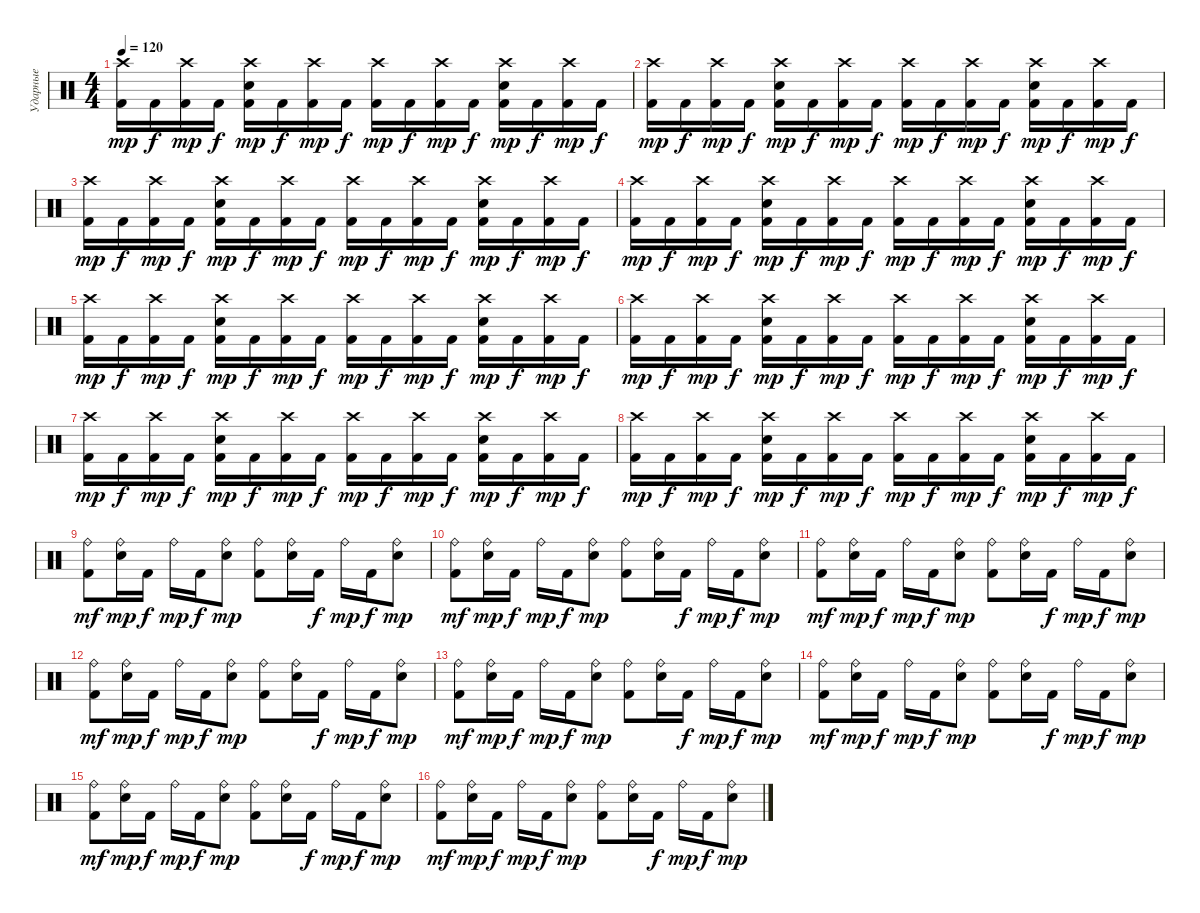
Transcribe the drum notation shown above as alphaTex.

\track ("Ударные" "Ударные") {instrument percussion}
\staff {score}
\articulation defaults
\ts (4 4)
\tempo 120
\clef neutral
\ks c
("Crash high (hit)" "Kick (hit) 2").16{dy mp} "Kick (hit) 2".16{dy f} ("Crash high (hit)" "Kick (hit) 2").16{dy mp} "Kick (hit) 2".16{dy f} ("Crash high (hit)" "Electric Snare (hit)" "Kick (hit) 2").16{dy mp} "Kick (hit) 2".16{dy f} ("Crash high (hit)" "Kick (hit) 2").16{dy mp} "Kick (hit) 2".16{dy f} ("Crash high (hit)" "Kick (hit) 2").16{dy mp} "Kick (hit) 2".16{dy f} ("Crash high (hit)" "Kick (hit) 2").16{dy mp} "Kick (hit) 2".16{dy f} ("Crash high (hit)" "Electric Snare (hit)" "Kick (hit) 2").16{dy mp} "Kick (hit) 2".16{dy f} ("Crash high (hit)" "Kick (hit) 2").16{dy mp} "Kick (hit) 2".16{dy f} |
("Crash high (hit)" "Kick (hit) 2").16{dy mp} "Kick (hit) 2".16{dy f} ("Crash high (hit)" "Kick (hit) 2").16{dy mp} "Kick (hit) 2".16{dy f} ("Crash high (hit)" "Electric Snare (hit)" "Kick (hit) 2").16{dy mp} "Kick (hit) 2".16{dy f} ("Crash high (hit)" "Kick (hit) 2").16{dy mp} "Kick (hit) 2".16{dy f} ("Crash high (hit)" "Kick (hit) 2").16{dy mp} "Kick (hit) 2".16{dy f} ("Crash high (hit)" "Kick (hit) 2").16{dy mp} "Kick (hit) 2".16{dy f} ("Crash high (hit)" "Electric Snare (hit)" "Kick (hit) 2").16{dy mp} "Kick (hit) 2".16{dy f} ("Crash high (hit)" "Kick (hit) 2").16{dy mp} "Kick (hit) 2".16{dy f} |
("Crash high (hit)" "Kick (hit) 2").16{dy mp} "Kick (hit) 2".16{dy f} ("Crash high (hit)" "Kick (hit) 2").16{dy mp} "Kick (hit) 2".16{dy f} ("Crash high (hit)" "Electric Snare (hit)" "Kick (hit) 2").16{dy mp} "Kick (hit) 2".16{dy f} ("Crash high (hit)" "Kick (hit) 2").16{dy mp} "Kick (hit) 2".16{dy f} ("Crash high (hit)" "Kick (hit) 2").16{dy mp} "Kick (hit) 2".16{dy f} ("Crash high (hit)" "Kick (hit) 2").16{dy mp} "Kick (hit) 2".16{dy f} ("Crash high (hit)" "Electric Snare (hit)" "Kick (hit) 2").16{dy mp} "Kick (hit) 2".16{dy f} ("Crash high (hit)" "Kick (hit) 2").16{dy mp} "Kick (hit) 2".16{dy f} |
("Crash high (hit)" "Kick (hit) 2").16{dy mp} "Kick (hit) 2".16{dy f} ("Crash high (hit)" "Kick (hit) 2").16{dy mp} "Kick (hit) 2".16{dy f} ("Crash high (hit)" "Electric Snare (hit)" "Kick (hit) 2").16{dy mp} "Kick (hit) 2".16{dy f} ("Crash high (hit)" "Kick (hit) 2").16{dy mp} "Kick (hit) 2".16{dy f} ("Crash high (hit)" "Kick (hit) 2").16{dy mp} "Kick (hit) 2".16{dy f} ("Crash high (hit)" "Kick (hit) 2").16{dy mp} "Kick (hit) 2".16{dy f} ("Crash high (hit)" "Electric Snare (hit)" "Kick (hit) 2").16{dy mp} "Kick (hit) 2".16{dy f} ("Crash high (hit)" "Kick (hit) 2").16{dy mp} "Kick (hit) 2".16{dy f} |
("Crash high (hit)" "Kick (hit) 2").16{dy mp} "Kick (hit) 2".16{dy f} ("Crash high (hit)" "Kick (hit) 2").16{dy mp} "Kick (hit) 2".16{dy f} ("Crash high (hit)" "Electric Snare (hit)" "Kick (hit) 2").16{dy mp} "Kick (hit) 2".16{dy f} ("Crash high (hit)" "Kick (hit) 2").16{dy mp} "Kick (hit) 2".16{dy f} ("Crash high (hit)" "Kick (hit) 2").16{dy mp} "Kick (hit) 2".16{dy f} ("Crash high (hit)" "Kick (hit) 2").16{dy mp} "Kick (hit) 2".16{dy f} ("Crash high (hit)" "Electric Snare (hit)" "Kick (hit) 2").16{dy mp} "Kick (hit) 2".16{dy f} ("Crash high (hit)" "Kick (hit) 2").16{dy mp} "Kick (hit) 2".16{dy f} |
("Crash high (hit)" "Kick (hit) 2").16{dy mp} "Kick (hit) 2".16{dy f} ("Crash high (hit)" "Kick (hit) 2").16{dy mp} "Kick (hit) 2".16{dy f} ("Crash high (hit)" "Electric Snare (hit)" "Kick (hit) 2").16{dy mp} "Kick (hit) 2".16{dy f} ("Crash high (hit)" "Kick (hit) 2").16{dy mp} "Kick (hit) 2".16{dy f} ("Crash high (hit)" "Kick (hit) 2").16{dy mp} "Kick (hit) 2".16{dy f} ("Crash high (hit)" "Kick (hit) 2").16{dy mp} "Kick (hit) 2".16{dy f} ("Crash high (hit)" "Electric Snare (hit)" "Kick (hit) 2").16{dy mp} "Kick (hit) 2".16{dy f} ("Crash high (hit)" "Kick (hit) 2").16{dy mp} "Kick (hit) 2".16{dy f} |
("Crash high (hit)" "Kick (hit) 2").16{dy mp} "Kick (hit) 2".16{dy f} ("Crash high (hit)" "Kick (hit) 2").16{dy mp} "Kick (hit) 2".16{dy f} ("Crash high (hit)" "Electric Snare (hit)" "Kick (hit) 2").16{dy mp} "Kick (hit) 2".16{dy f} ("Crash high (hit)" "Kick (hit) 2").16{dy mp} "Kick (hit) 2".16{dy f} ("Crash high (hit)" "Kick (hit) 2").16{dy mp} "Kick (hit) 2".16{dy f} ("Crash high (hit)" "Kick (hit) 2").16{dy mp} "Kick (hit) 2".16{dy f} ("Crash high (hit)" "Electric Snare (hit)" "Kick (hit) 2").16{dy mp} "Kick (hit) 2".16{dy f} ("Crash high (hit)" "Kick (hit) 2").16{dy mp} "Kick (hit) 2".16{dy f} |
("Crash high (hit)" "Kick (hit) 2").16{dy mp} "Kick (hit) 2".16{dy f} ("Crash high (hit)" "Kick (hit) 2").16{dy mp} "Kick (hit) 2".16{dy f} ("Crash high (hit)" "Electric Snare (hit)" "Kick (hit) 2").16{dy mp} "Kick (hit) 2".16{dy f} ("Crash high (hit)" "Kick (hit) 2").16{dy mp} "Kick (hit) 2".16{dy f} ("Crash high (hit)" "Kick (hit) 2").16{dy mp} "Kick (hit) 2".16{dy f} ("Crash high (hit)" "Kick (hit) 2").16{dy mp} "Kick (hit) 2".16{dy f} ("Crash high (hit)" "Electric Snare (hit)" "Kick (hit) 2").16{dy mp} "Kick (hit) 2".16{dy f} ("Crash high (hit)" "Kick (hit) 2").16{dy mp} "Kick (hit) 2".16{dy f} |
("Ride (bell)" "Kick (hit) 2").8{dy mf} ("Ride (bell)" "Electric Snare (hit)").16{dy mp} "Kick (hit) 2".16{dy f} "Ride (bell)".16{dy mp} "Kick (hit) 2".16{dy f} ("Ride (bell)" "Electric Snare (hit)").8{dy mp} ("Ride (bell)" "Kick (hit) 2").8 ("Ride (bell)" "Electric Snare (hit)").16 "Kick (hit) 2".16{dy f} "Ride (bell)".16{dy mp} "Kick (hit) 2".16{dy f} ("Ride (bell)" "Electric Snare (hit)").8{dy mp} |
("Ride (bell)" "Kick (hit) 2").8{dy mf} ("Ride (bell)" "Electric Snare (hit)").16{dy mp} "Kick (hit) 2".16{dy f} "Ride (bell)".16{dy mp} "Kick (hit) 2".16{dy f} ("Ride (bell)" "Electric Snare (hit)").8{dy mp} ("Ride (bell)" "Kick (hit) 2").8 ("Ride (bell)" "Electric Snare (hit)").16 "Kick (hit) 2".16{dy f} "Ride (bell)".16{dy mp} "Kick (hit) 2".16{dy f} ("Ride (bell)" "Electric Snare (hit)").8{dy mp} |
("Ride (bell)" "Kick (hit) 2").8{dy mf} ("Ride (bell)" "Electric Snare (hit)").16{dy mp} "Kick (hit) 2".16{dy f} "Ride (bell)".16{dy mp} "Kick (hit) 2".16{dy f} ("Ride (bell)" "Electric Snare (hit)").8{dy mp} ("Ride (bell)" "Kick (hit) 2").8 ("Ride (bell)" "Electric Snare (hit)").16 "Kick (hit) 2".16{dy f} "Ride (bell)".16{dy mp} "Kick (hit) 2".16{dy f} ("Ride (bell)" "Electric Snare (hit)").8{dy mp} |
("Ride (bell)" "Kick (hit) 2").8{dy mf} ("Ride (bell)" "Electric Snare (hit)").16{dy mp} "Kick (hit) 2".16{dy f} "Ride (bell)".16{dy mp} "Kick (hit) 2".16{dy f} ("Ride (bell)" "Electric Snare (hit)").8{dy mp} ("Ride (bell)" "Kick (hit) 2").8 ("Ride (bell)" "Electric Snare (hit)").16 "Kick (hit) 2".16{dy f} "Ride (bell)".16{dy mp} "Kick (hit) 2".16{dy f} ("Ride (bell)" "Electric Snare (hit)").8{dy mp} |
("Ride (bell)" "Kick (hit) 2").8{dy mf} ("Ride (bell)" "Electric Snare (hit)").16{dy mp} "Kick (hit) 2".16{dy f} "Ride (bell)".16{dy mp} "Kick (hit) 2".16{dy f} ("Ride (bell)" "Electric Snare (hit)").8{dy mp} ("Ride (bell)" "Kick (hit) 2").8 ("Ride (bell)" "Electric Snare (hit)").16 "Kick (hit) 2".16{dy f} "Ride (bell)".16{dy mp} "Kick (hit) 2".16{dy f} ("Ride (bell)" "Electric Snare (hit)").8{dy mp} |
("Ride (bell)" "Kick (hit) 2").8{dy mf} ("Ride (bell)" "Electric Snare (hit)").16{dy mp} "Kick (hit) 2".16{dy f} "Ride (bell)".16{dy mp} "Kick (hit) 2".16{dy f} ("Ride (bell)" "Electric Snare (hit)").8{dy mp} ("Ride (bell)" "Kick (hit) 2").8 ("Ride (bell)" "Electric Snare (hit)").16 "Kick (hit) 2".16{dy f} "Ride (bell)".16{dy mp} "Kick (hit) 2".16{dy f} ("Ride (bell)" "Electric Snare (hit)").8{dy mp} |
("Ride (bell)" "Kick (hit) 2").8{dy mf} ("Ride (bell)" "Electric Snare (hit)").16{dy mp} "Kick (hit) 2".16{dy f} "Ride (bell)".16{dy mp} "Kick (hit) 2".16{dy f} ("Ride (bell)" "Electric Snare (hit)").8{dy mp} ("Ride (bell)" "Kick (hit) 2").8 ("Ride (bell)" "Electric Snare (hit)").16 "Kick (hit) 2".16{dy f} "Ride (bell)".16{dy mp} "Kick (hit) 2".16{dy f} ("Ride (bell)" "Electric Snare (hit)").8{dy mp} |
("Ride (bell)" "Kick (hit) 2").8{dy mf} ("Ride (bell)" "Electric Snare (hit)").16{dy mp} "Kick (hit) 2".16{dy f} "Ride (bell)".16{dy mp} "Kick (hit) 2".16{dy f} ("Ride (bell)" "Electric Snare (hit)").8{dy mp} ("Ride (bell)" "Kick (hit) 2").8 ("Ride (bell)" "Electric Snare (hit)").16 "Kick (hit) 2".16{dy f} "Ride (bell)".16{dy mp} "Kick (hit) 2".16{dy f} ("Ride (bell)" "Electric Snare (hit)").8{dy mp}
